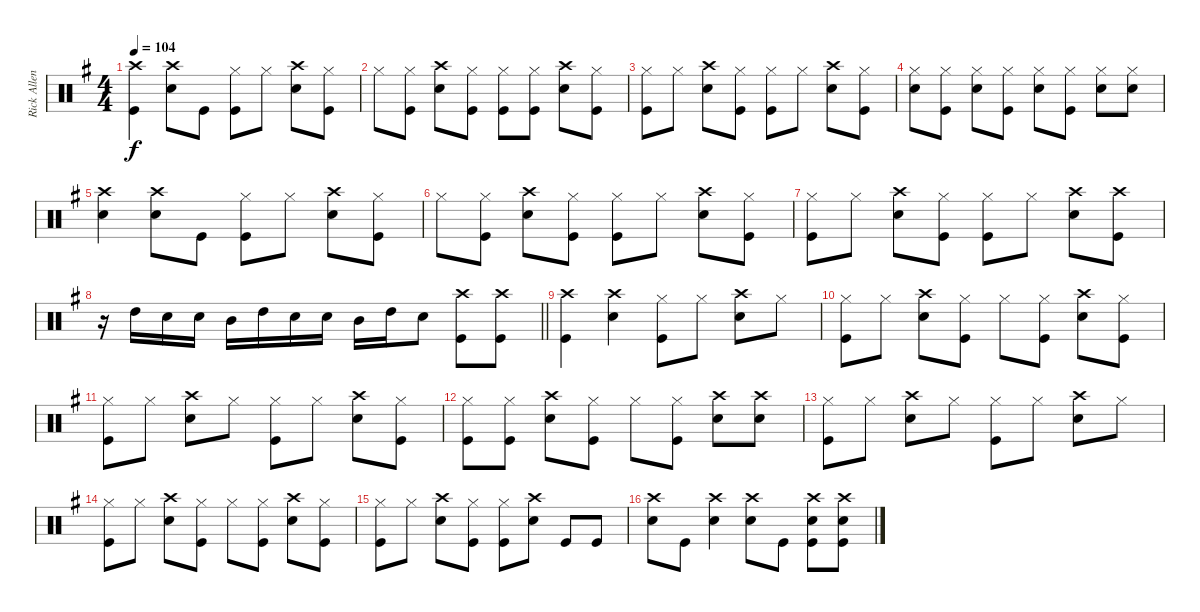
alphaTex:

\track ("Rick Allen" "Rick Allen") {instrument percussion}
\staff {score}
\articulation defaults
\ts (4 4)
\tempo 104
\clef neutral
\ks eminor
("Crash high (hit)" "Kick (hit)").4{dy f} ("Crash high (hit)" "Snare (hit) 2").8 "Kick (hit)".8 ("Hi-Hat (closed)" "Kick (hit)").8 "Hi-Hat (closed)".8 ("Crash high (hit)" "Snare (hit) 2").8 ("Hi-Hat (closed)" "Kick (hit)").8 |
"Hi-Hat (closed)".8 ("Hi-Hat (closed)" "Kick (hit)").8 ("Crash high (hit)" "Snare (hit) 2").8 ("Hi-Hat (closed)" "Kick (hit)").8 ("Hi-Hat (closed)" "Kick (hit)").8 ("Hi-Hat (closed)" "Kick (hit)").8 ("Crash high (hit)" "Snare (hit) 2").8 ("Hi-Hat (closed)" "Kick (hit)").8 |
("Hi-Hat (closed)" "Kick (hit)").8 "Hi-Hat (closed)".8 ("Crash high (hit)" "Snare (hit) 2").8 ("Hi-Hat (closed)" "Kick (hit)").8 ("Hi-Hat (closed)" "Kick (hit)").8 "Hi-Hat (closed)".8 ("Crash high (hit)" "Snare (hit) 2").8 ("Hi-Hat (closed)" "Kick (hit)").8 |
("Hi-Hat (closed)" "Snare (hit) 2").8 ("Hi-Hat (closed)" "Kick (hit)").8 ("Hi-Hat (closed)" "Snare (hit) 2").8 ("Hi-Hat (closed)" "Kick (hit)").8 ("Hi-Hat (closed)" "Snare (hit) 2").8 ("Hi-Hat (closed)" "Kick (hit)").8 ("Hi-Hat (closed)" "Snare (hit) 2").8 ("Hi-Hat (closed)" "Snare (hit) 2").8 |
("Crash high (hit)" "Snare (hit) 2").4 ("Crash high (hit)" "Snare (hit) 2").8 "Kick (hit)".8 ("Hi-Hat (closed)" "Kick (hit)").8 "Hi-Hat (closed)".8 ("Crash high (hit)" "Snare (hit) 2").8 ("Hi-Hat (closed)" "Kick (hit)").8 |
"Hi-Hat (closed)".8 ("Hi-Hat (closed)" "Kick (hit)").8 ("Crash high (hit)" "Snare (hit) 2").8 ("Hi-Hat (closed)" "Kick (hit)").8 ("Hi-Hat (closed)" "Kick (hit)").8 "Hi-Hat (closed)".8 ("Crash high (hit)" "Snare (hit) 2").8 ("Hi-Hat (closed)" "Kick (hit)").8 |
("Hi-Hat (closed)" "Kick (hit)").8 "Hi-Hat (closed)".8 ("Crash high (hit)" "Snare (hit) 2").8 ("Hi-Hat (closed)" "Kick (hit)").8 ("Hi-Hat (closed)" "Kick (hit)").8 "Hi-Hat (closed)".8 ("Crash high (hit)" "Snare (hit) 2").8 ("Crash high (hit)" "Kick (hit)").8 |
\barLineRight lightlight
r.16 "High Tom (hit)".16 "Snare (hit) 2".16 "Snare (hit) 2".16 "Mid Tom (hit)".16 "High Tom (hit)".16 "Snare (hit) 2".16 "Snare (hit) 2".16 "Mid Tom (hit)".16 "High Tom (hit)".16 "Snare (hit) 2".8 ("Crash high (hit)" "Kick (hit)").8 ("Crash high (hit)" "Kick (hit)").8 |
("Crash high (hit)" "Kick (hit)").4 ("Crash high (hit)" "Snare (hit) 2").4 ("Hi-Hat (closed)" "Kick (hit)").8 "Hi-Hat (closed)".8 ("Crash high (hit)" "Snare (hit) 2").8 "Hi-Hat (closed)".8 |
("Hi-Hat (closed)" "Kick (hit)").8 "Hi-Hat (closed)".8 ("Crash high (hit)" "Snare (hit) 2").8 ("Hi-Hat (closed)" "Kick (hit)").8 "Hi-Hat (closed)".8 ("Hi-Hat (closed)" "Kick (hit)").8 ("Crash high (hit)" "Snare (hit) 2").8 ("Hi-Hat (closed)" "Kick (hit)").8 |
("Hi-Hat (closed)" "Kick (hit)").8 "Hi-Hat (closed)".8 ("Crash high (hit)" "Snare (hit) 2").8 "Hi-Hat (closed)".8 ("Hi-Hat (closed)" "Kick (hit)").8 "Hi-Hat (closed)".8 ("Crash high (hit)" "Snare (hit) 2").8 ("Hi-Hat (closed)" "Kick (hit)").8 |
("Hi-Hat (closed)" "Kick (hit)").8 ("Hi-Hat (closed)" "Kick (hit)").8 ("Crash high (hit)" "Snare (hit) 2").8 ("Hi-Hat (closed)" "Kick (hit)").8 "Hi-Hat (closed)".8 ("Hi-Hat (closed)" "Kick (hit)").8 ("Crash high (hit)" "Snare (hit) 2").8 ("Crash high (hit)" "Snare (hit) 2").8 |
("Hi-Hat (closed)" "Kick (hit)").8 "Hi-Hat (closed)".8 ("Crash high (hit)" "Snare (hit) 2").8 "Hi-Hat (closed)".8 ("Hi-Hat (closed)" "Kick (hit)").8 "Hi-Hat (closed)".8 ("Crash high (hit)" "Snare (hit) 2").8 "Hi-Hat (closed)".8 |
("Hi-Hat (closed)" "Kick (hit)").8 "Hi-Hat (closed)".8 ("Crash high (hit)" "Snare (hit) 2").8 ("Hi-Hat (closed)" "Kick (hit)").8 "Hi-Hat (closed)".8 ("Hi-Hat (closed)" "Kick (hit)").8 ("Crash high (hit)" "Snare (hit) 2").8 ("Hi-Hat (closed)" "Kick (hit)").8 |
("Hi-Hat (closed)" "Kick (hit)").8 "Hi-Hat (closed)".8 ("Crash high (hit)" "Snare (hit) 2").8 ("Hi-Hat (closed)" "Kick (hit)").8 ("Hi-Hat (closed)" "Kick (hit)").8 ("Crash high (hit)" "Snare (hit) 2").8 "Kick (hit)".8 "Kick (hit)".8 |
("Crash high (hit)" "Snare (hit) 2").8 "Kick (hit)".8 ("Crash high (hit)" "Snare (hit) 2").4 ("Crash high (hit)" "Snare (hit) 2").8 "Kick (hit)".8 ("Crash high (hit)" "Snare (hit) 2" "Kick (hit)").8 ("Crash high (hit)" "Snare (hit) 2" "Kick (hit)").8
